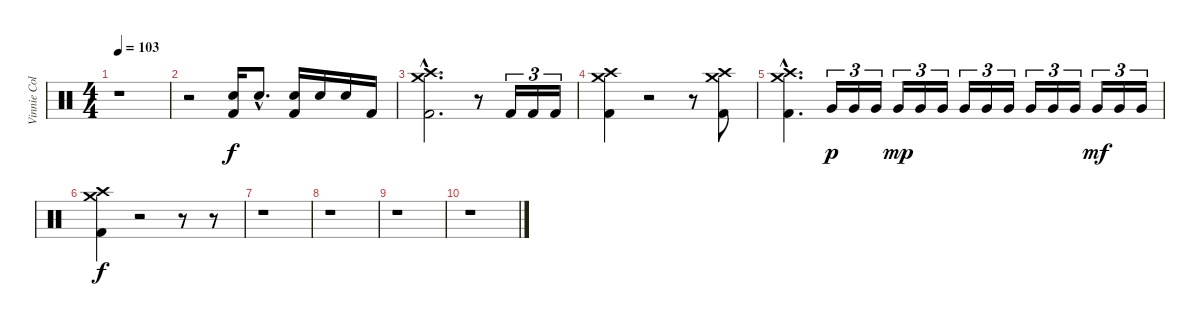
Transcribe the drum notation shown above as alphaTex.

\track ("Vinnie Colaiuta" "Vinnie Col") {instrument percussion}
\staff {score}
\articulation defaults
\ts (4 4)
\tempo 103
\clef neutral
\ks c
r.1{dy f} |
r.2 ("Electric Snare (hit)" "Kick (hit) 2").16 "Electric Snare (hit)"{hac}.8{d} ("Electric Snare (hit)" "Kick (hit) 2").16 "Electric Snare (hit)".16 "Electric Snare (hit)".16 "Kick (hit) 2".16 |
("Crash high (hit)"{hac} "Crash medium (hit)"{hac} "Kick (hit) 2"{hac}).2{d} r.8 "Kick (hit) 2".16{tu (3 2)} "Kick (hit) 2".16{tu (3 2)} "Kick (hit) 2".16{tu (3 2)} |
("Crash high (hit)" "Crash medium (hit)" "Kick (hit) 2").4 r.2 r.8 ("Crash medium (hit)" "Crash high (hit)" "Kick (hit) 2").8 |
("Crash high (hit)"{hac} "Crash medium (hit)"{hac} "Kick (hit) 2"{hac}).4{d} "Very Low Tom (hit)".16{tu (3 2) dy p} "Very Low Tom (hit)".16{tu (3 2)} "Very Low Tom (hit)".16{tu (3 2)} "Very Low Tom (hit)".16{tu (3 2) dy mp} "Very Low Tom (hit)".16{tu (3 2)} "Very Low Tom (hit)".16{tu (3 2)} "Very Low Tom (hit)".16{tu (3 2)} "Very Low Tom (hit)".16{tu (3 2)} "Very Low Tom (hit)".16{tu (3 2)} "Very Low Tom (hit)".16{tu (3 2)} "Very Low Tom (hit)".16{tu (3 2)} "Very Low Tom (hit)".16{tu (3 2)} "Very Low Tom (hit)".16{tu (3 2) dy mf} "Very Low Tom (hit)".16{tu (3 2)} "Very Low Tom (hit)".16{tu (3 2)} |
("Crash high (hit)" "Crash medium (hit)" "Kick (hit) 2").4{dy f} r.2 r.8 r.8 |
r.1 |
r.1 |
r.1 |
r.1
